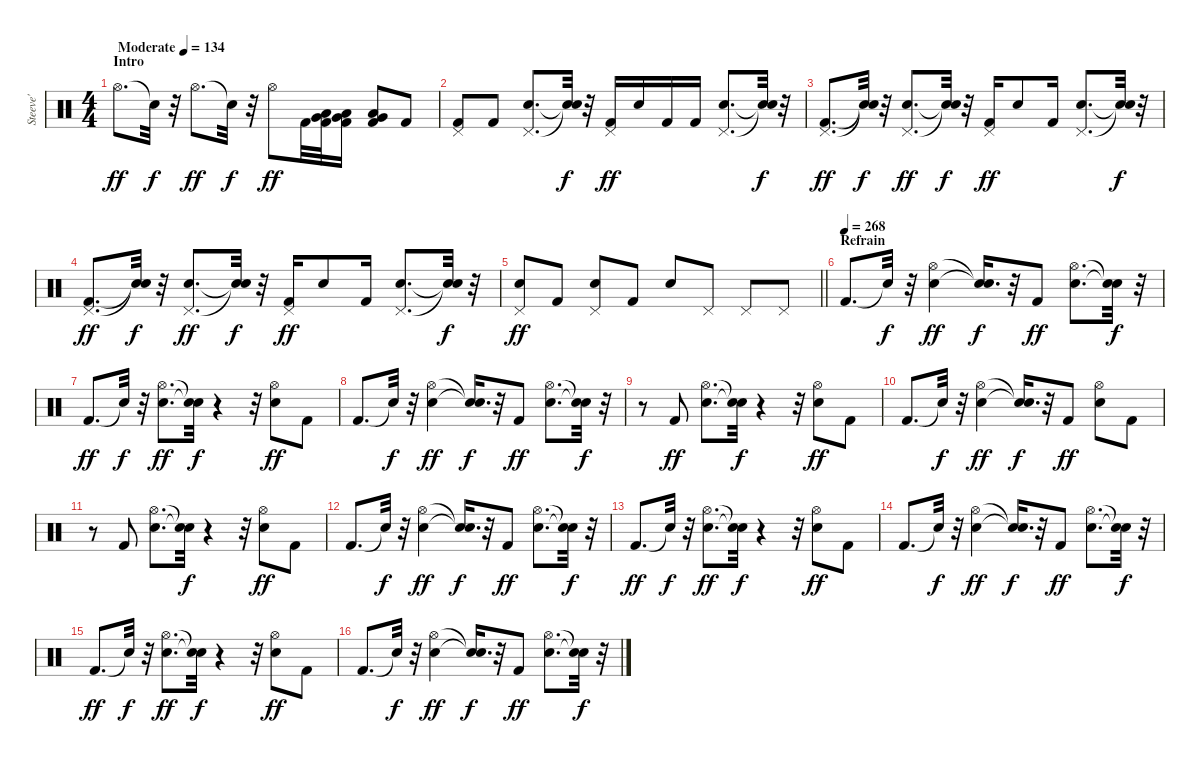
\track ("Steeve'" "Steeve'") {instrument percussion}
\staff {score}
\articulation defaults
\ts (4 4)
\section ("" "Intro")
\tempo (134 "Moderate")
\clef neutral
\ks c "Hi-Hat (open)".8{d dy ff} "Snare (hit)"{t}.32{dy f}
r.32 "Hi-Hat (open)".8{d dy ff} "Snare (hit)"{t}.32{dy f} r.32 "Hi-Hat (open)".8{dy ff} "Kick (hit) 2".32 ("Kick (hit) 2" "Low Floor Tom (hit)" "Very Low Tom (hit)").32 ("Kick (hit) 2" "Low Floor Tom (hit)" "Very Low Tom (hit)").16 ("Kick (hit) 2" "Low Floor Tom (hit)" "Very Low Tom (hit)").8 "Kick (hit) 2".8 |
("Kick (hit) 2" "Pedal Hi-Hat (hit)").8 "Kick (hit) 2".8 ("Electric Snare (hit)" "Pedal Hi-Hat (hit)").8{d} ("Snare (hit)"{t} "Snare (hit)"{t}).32{dy f} r.32 ("Kick (hit) 2" "Pedal Hi-Hat (hit)").16{dy ff} "Electric Snare (hit)".16 "Kick (hit) 2".16 "Kick (hit) 2".16 ("Electric Snare (hit)" "Pedal Hi-Hat (hit)").8{d} ("Snare (hit)"{t} "Snare (hit)"{t}).32{dy f} r.32 |
("Kick (hit) 2" "Pedal Hi-Hat (hit)").8{d dy ff} ("Snare (hit)"{t} "Snare (hit)"{t}).32{dy f} r.32 ("Electric Snare (hit)" "Pedal Hi-Hat (hit)").8{d dy ff} ("Snare (hit)"{t} "Snare (hit)"{t}).32{dy f} r.32 ("Kick (hit) 2" "Pedal Hi-Hat (hit)").16{dy ff} "Electric Snare (hit)".8 "Kick (hit) 2".16 ("Electric Snare (hit)" "Pedal Hi-Hat (hit)").8{d} ("Snare (hit)"{t} "Snare (hit)"{t}).32{dy f} r.32 |
("Kick (hit) 2" "Pedal Hi-Hat (hit)").8{d dy ff} ("Snare (hit)"{t} "Snare (hit)"{t}).32{dy f} r.32 ("Electric Snare (hit)" "Pedal Hi-Hat (hit)").8{d dy ff} ("Snare (hit)"{t} "Snare (hit)"{t}).32{dy f} r.32 ("Kick (hit) 2" "Pedal Hi-Hat (hit)").16{dy ff} "Electric Snare (hit)".8 "Kick (hit) 2".16 ("Electric Snare (hit)" "Pedal Hi-Hat (hit)").8{d} ("Snare (hit)"{t} "Snare (hit)"{t}).32{dy f} r.32 |
\barLineRight lightlight
("Electric Snare (hit)" "Pedal Hi-Hat (hit)").8{dy ff} "Kick (hit) 2".8 ("Electric Snare (hit)" "Pedal Hi-Hat (hit)").8 "Kick (hit) 2".8 "Electric Snare (hit)".8 "Pedal Hi-Hat (hit)".8 "Pedal Hi-Hat (hit)".8 "Pedal Hi-Hat (hit)".8 |
\section ("" "Refrain")
\tempo (268)
"Kick (hit) 2".8{d} "Snare (hit)"{t}.32{dy f} r.32 ("Electric Snare (hit)" "Hi-Hat (open)").4{dy ff} ("Snare (hit)"{t} "Snare (hit)"{t}).16{d dy f} r.32 "Kick (hit) 2".8{dy ff} ("Electric Snare (hit)" "Hi-Hat (open)").8{d} ("Snare (hit)"{t} "Snare (hit)"{t}).32{dy f} r.32 |
"Kick (hit) 2".8{d dy ff} "Snare (hit)"{t}.32{dy f} r.32 ("Electric Snare (hit)" "Hi-Hat (open)").8{d dy ff} ("Snare (hit)"{t} "Snare (hit)"{t}).32{dy f} r.4 r.32 ("Electric Snare (hit)" "Hi-Hat (open)").8{dy ff} "Kick (hit) 2".8 |
"Kick (hit) 2".8{d} "Snare (hit)"{t}.32{dy f} r.32 ("Electric Snare (hit)" "Hi-Hat (open)").4{dy ff} ("Snare (hit)"{t} "Snare (hit)"{t}).16{d dy f} r.32 "Kick (hit) 2".8{dy ff} ("Electric Snare (hit)" "Hi-Hat (open)").8{d} ("Snare (hit)"{t} "Snare (hit)"{t}).32{dy f} r.32 |
r.8 "Kick (hit) 2".8{dy ff} ("Electric Snare (hit)" "Hi-Hat (open)").8{d} ("Snare (hit)"{t} "Snare (hit)"{t}).32{dy f} r.4 r.32 ("Electric Snare (hit)" "Hi-Hat (open)").8{dy ff} "Kick (hit) 2".8 |
"Kick (hit) 2".8{d} "Snare (hit)"{t}.32{dy f} r.32 ("Electric Snare (hit)" "Hi-Hat (open)").4{dy ff} ("Snare (hit)"{t} "Snare (hit)"{t}).16{d dy f} r.32 "Kick (hit) 2".8{dy ff} ("Electric Snare (hit)" "Hi-Hat (open)").8 "Kick (hit) 2".8 |
r.8 "Kick (hit) 2".8 ("Electric Snare (hit)" "Hi-Hat (open)").8{d} ("Snare (hit)"{t} "Snare (hit)"{t}).32{dy f} r.4 r.32 ("Electric Snare (hit)" "Hi-Hat (open)").8{dy ff} "Kick (hit) 2".8 |
"Kick (hit) 2".8{d} "Snare (hit)"{t}.32{dy f} r.32 ("Electric Snare (hit)" "Hi-Hat (open)").4{dy ff} ("Snare (hit)"{t} "Snare (hit)"{t}).16{d dy f} r.32 "Kick (hit) 2".8{dy ff} ("Electric Snare (hit)" "Hi-Hat (open)").8{d} ("Snare (hit)"{t} "Snare (hit)"{t}).32{dy f} r.32 |
"Kick (hit) 2".8{d dy ff} "Snare (hit)"{t}.32{dy f} r.32 ("Electric Snare (hit)" "Hi-Hat (open)").8{d dy ff} ("Snare (hit)"{t} "Snare (hit)"{t}).32{dy f} r.4 r.32 ("Electric Snare (hit)" "Hi-Hat (open)").8{dy ff} "Kick (hit) 2".8 |
"Kick (hit) 2".8{d} "Snare (hit)"{t}.32{dy f} r.32 ("Electric Snare (hit)" "Hi-Hat (open)").4{dy ff} ("Snare (hit)"{t} "Snare (hit)"{t}).16{d dy f} r.32 "Kick (hit) 2".8{dy ff} ("Electric Snare (hit)" "Hi-Hat (open)").8{d} ("Snare (hit)"{t} "Snare (hit)"{t}).32{dy f} r.32 |
"Kick (hit) 2".8{d dy ff} "Snare (hit)"{t}.32{dy f} r.32 ("Electric Snare (hit)" "Hi-Hat (open)").8{d dy ff} ("Snare (hit)"{t} "Snare (hit)"{t}).32{dy f} r.4 r.32 ("Electric Snare (hit)" "Hi-Hat (open)").8{dy ff} "Kick (hit) 2".8 |
"Kick (hit) 2".8{d} "Snare (hit)"{t}.32{dy f} r.32 ("Electric Snare (hit)" "Hi-Hat (open)").4{dy ff} ("Snare (hit)"{t} "Snare (hit)"{t}).16{d dy f} r.32 "Kick (hit) 2".8{dy ff} ("Electric Snare (hit)" "Hi-Hat (open)").8{d} ("Snare (hit)"{t} "Snare (hit)"{t}).32{dy f} r.32
